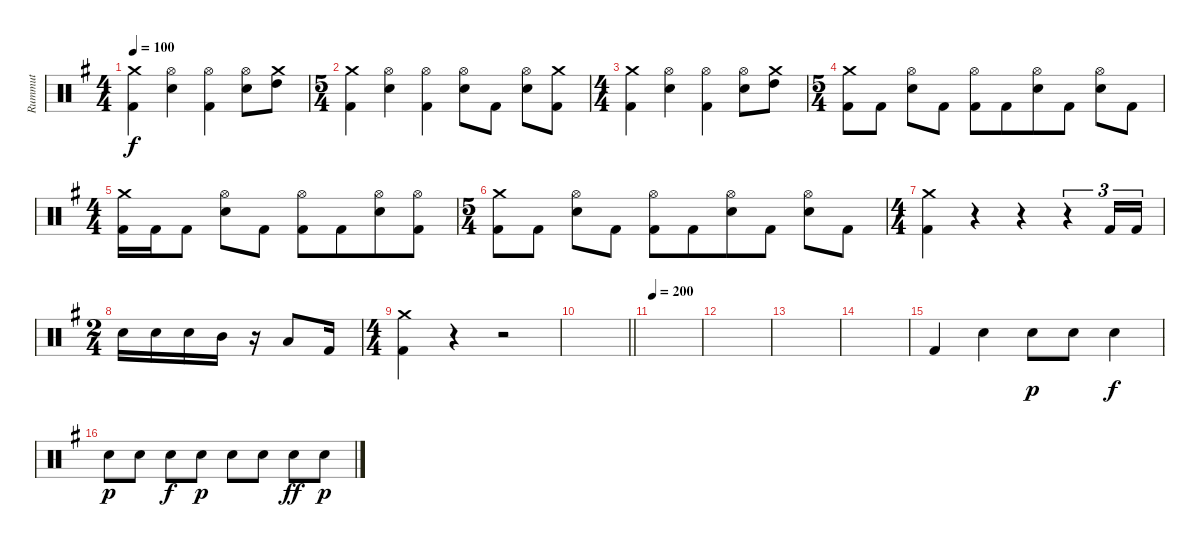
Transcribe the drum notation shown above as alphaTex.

\track ("Rummut" "Rummut") {instrument percussion}
\staff {score}
\articulation defaults
\ts (4 4)
\tempo 100
\clef neutral
\ks g
("Crash medium (hit)" "Kick (hit) 2").4{dy f} ("Hi-Hat (open)" "Snare (hit) 2").4 ("Hi-Hat (open)" "Kick (hit) 2").4 ("Hi-Hat (open)" "Snare (hit) 2").8 ("Crash medium (hit)" "High Tom (hit)").8 |
\ts (5 4)
("Crash medium (hit)" "Kick (hit) 2").4 ("Hi-Hat (open)" "Snare (hit) 2").4 ("Hi-Hat (open)" "Kick (hit) 2").4 ("Hi-Hat (open)" "Snare (hit) 2").8 "Kick (hit) 2".8 ("Hi-Hat (open)" "Snare (hit) 2").8 ("Crash medium (hit)" "Kick (hit) 2").8 |
\ts (4 4)
("Crash medium (hit)" "Kick (hit) 2").4 ("Hi-Hat (open)" "Snare (hit) 2").4 ("Hi-Hat (open)" "Kick (hit) 2").4 ("Hi-Hat (open)" "Snare (hit) 2").8 ("Crash medium (hit)" "High Tom (hit)").8 |
\ts (5 4)
("Crash medium (hit)" "Kick (hit) 2").8 "Kick (hit) 2".8 ("Hi-Hat (open)" "Snare (hit) 2").8 "Kick (hit) 2".8{beam split} ("Hi-Hat (open)" "Kick (hit) 2").8 "Kick (hit) 2".8{beam merge} ("Hi-Hat (open)" "Snare (hit) 2").8 "Kick (hit) 2".8{beam split} ("Hi-Hat (open)" "Snare (hit) 2").8 "Kick (hit) 2".8 |
\ts (4 4)
("Crash medium (hit)" "Kick (hit) 2").16 "Kick (hit) 2".16 "Kick (hit) 2".8 ("Hi-Hat (open)" "Snare (hit) 2").8 "Kick (hit) 2".8 ("Hi-Hat (open)" "Kick (hit) 2").8 "Kick (hit) 2".8{beam merge} ("Hi-Hat (open)" "Snare (hit) 2").8 ("Hi-Hat (open)" "Kick (hit) 2").8 |
\ts (5 4)
("Crash medium (hit)" "Kick (hit) 2").8 "Kick (hit) 2".8 ("Hi-Hat (open)" "Snare (hit) 2").8 "Kick (hit) 2".8{beam split} ("Hi-Hat (open)" "Kick (hit) 2").8 "Kick (hit) 2".8{beam merge} ("Hi-Hat (open)" "Snare (hit) 2").8 "Kick (hit) 2".8{beam split} ("Hi-Hat (open)" "Snare (hit) 2").8 "Kick (hit) 2".8 |
\ts (4 4)
("Crash medium (hit)" "Kick (hit) 2").4 r.4 r.4 r.4{tu (3 2)} "Kick (hit) 2".16{tu (3 2)} "Kick (hit) 2".16{tu (3 2)} |
\ts (2 4)
"Snare (hit) 2".16 "Snare (hit) 2".16 "Snare (hit) 2".16 "Mid Tom (hit)".16 r.16 "Low Tom (hit)".8 "Kick (hit) 2".16 |
\ts (4 4)
("Crash medium (hit)" "Kick (hit) 2").4 r.4 r.2 |
\barLineRight lightlight
|
\tempo 200
|
|
|
|
"Kick (hit) 2".4 "Snare (hit) 2".4 "Snare (hit) 2".8{dy p} "Snare (hit) 2".8 "Snare (hit) 2".4{dy f} |
"Snare (hit) 2".8{dy p} "Snare (hit) 2".8 "Snare (hit) 2".8{dy f} "Snare (hit) 2".8{dy p} "Snare (hit) 2".8 "Snare (hit) 2".8 "Snare (hit) 2".8{dy ff} "Snare (hit) 2".8{dy p}
